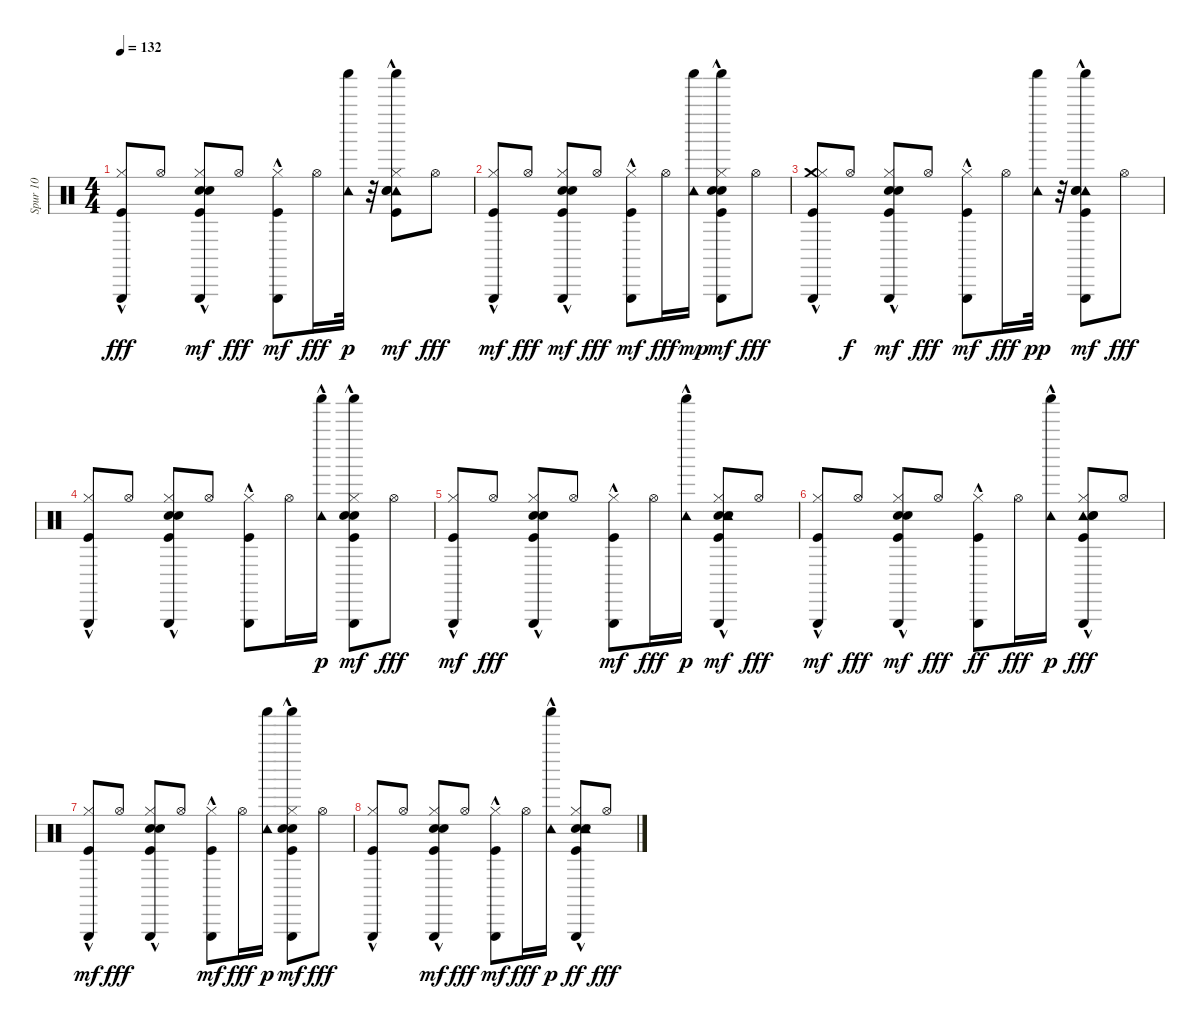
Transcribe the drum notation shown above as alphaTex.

\track ("Spur 10" "Spur 10") {instrument percussion}
\staff {score}
\articulation defaults
\ts (4 4)
\tempo 132
\clef neutral
\ks c
("Triangle (hit)"{hac} "Kick (hit)"{hac} "Hi-Hat (closed)").8{dy fff} "Hi-Hat (open)".8 ("Kick (hit)"{hac} "Hand Clap (hit)"{hac} "Snare (hit) 2"{hac} "Hi-Hat (closed)" "Triangle (hit)"{hac}).8{dy mf} "Hi-Hat (open)".8{dy fff} ("Hi-Hat (closed)" "Kick (hit)"{hac} "Triangle (hit)"{hac}).8{dy mf} "Hi-Hat (open)".16{dy fff} ("Tambourine (hit)" "Shaker (hit)").32{dy p} r.32 ("Shaker (hit)" "Tambourine (hit)"{hac} "Hi-Hat (closed)" "Kick (hit)"{hac} "Hand Clap (hit)"{hac} "Snare (hit) 2"{hac}).8{dy mf} "Hi-Hat (open)".8{dy fff} |
("Hi-Hat (closed)" "Kick (hit)"{hac} "Triangle (hit)"{hac}).8{dy mf} "Hi-Hat (open)".8{dy fff} ("Hi-Hat (closed)" "Kick (hit)"{hac} "Snare (hit) 2"{hac} "Hand Clap (hit)"{hac} "Triangle (hit)"{hac}).8{dy mf} "Hi-Hat (open)".8{dy fff} ("Kick (hit)"{hac} "Hi-Hat (closed)" "Triangle (hit)"{hac}).8{dy mf} "Hi-Hat (open)".16{dy fff} ("Shaker (hit)" "Tambourine (hit)").16{dy mp} ("Shaker (hit)"{hac} "Triangle (hit)"{hac} "Hi-Hat (closed)" "Kick (hit)" "Hand Clap (hit)"{hac} "Snare (hit) 2"{hac}).8{dy mf} "Hi-Hat (open)".8{dy fff} |
("Crash medium (hit)" "Triangle (hit)"{hac} "Hi-Hat (closed)" "Kick (hit)").8 "Hi-Hat (open)".8{dy f} ("Snare (hit) 2"{hac} "Hand Clap (hit)"{hac} "Kick (hit)"{hac} "Hi-Hat (closed)" "Triangle (hit)").8{dy mf} "Hi-Hat (open)".8{dy fff} ("Kick (hit)"{hac} "Hi-Hat (closed)"{hac} "Triangle (hit)"{hac}).8{dy mf} "Hi-Hat (open)".16{dy fff} ("Tambourine (hit)" "Shaker (hit)").32{dy pp} r.32 ("Shaker (hit)" "Tambourine (hit)"{hac} "Triangle (hit)" "Kick (hit)"{hac} "Hand Clap (hit)"{hac} "Snare (hit) 2"{hac}).8{dy mf} "Hi-Hat (open)".8{dy fff} |
("Triangle (hit)"{hac} "Hi-Hat (closed)" "Kick (hit)"{hac}).8 "Hi-Hat (open)".8 ("Triangle (hit)" "Hi-Hat (closed)" "Hand Clap (hit)"{hac} "Snare (hit) 2"{hac} "Kick (hit)"{hac}).8 "Hi-Hat (open)".8 ("Triangle (hit)"{hac} "Hi-Hat (closed)" "Kick (hit)"{hac}).8 "Hi-Hat (open)".16 ("Tambourine (hit)"{hac} "Shaker (hit)").16{dy p} ("Shaker (hit)" "Triangle (hit)"{hac} "Hi-Hat (closed)" "Kick (hit)"{hac} "Hand Clap (hit)"{hac} "Snare (hit) 2"{hac}).8{dy mf} "Hi-Hat (open)".8{dy fff} |
("Kick (hit)"{hac} "Hi-Hat (closed)" "Triangle (hit)"{hac}).8{dy mf} "Hi-Hat (open)".8{dy fff} ("Triangle (hit)"{hac} "Kick (hit)"{hac} "Hand Clap (hit)"{hac} "Snare (hit) 2"{hac} "Hi-Hat (closed)").8 "Hi-Hat (open)".8 ("Kick (hit)"{hac} "Hi-Hat (closed)" "Triangle (hit)"{hac}).8{dy mf} "Hi-Hat (open)".16{dy fff} ("Tambourine (hit)" "Shaker (hit)"{hac}).16{dy p} ("Kick (hit)"{hac} "Snare (hit) 2"{hac} "Hand Clap (hit)"{hac} "Hi-Hat (closed)" "Triangle (hit)"{hac} "Tambourine (hit)"{hac}).8{dy mf} "Hi-Hat (open)".8{dy fff} |
("Kick (hit)"{hac} "Hi-Hat (closed)" "Triangle (hit)"{hac}).8{dy mf} "Hi-Hat (open)".8{dy fff} ("Triangle (hit)"{hac} "Hi-Hat (closed)" "Kick (hit)"{hac} "Hand Clap (hit)"{hac} "Snare (hit) 2"{hac}).8{dy mf} "Hi-Hat (open)".8{dy fff} ("Triangle (hit)"{hac} "Kick (hit)"{hac} "Hi-Hat (closed)").8{dy ff} "Hi-Hat (open)".16{dy fff} ("Tambourine (hit)" "Shaker (hit)"{hac}).16{dy p} ("Tambourine (hit)"{hac} "Triangle (hit)"{hac} "Kick (hit)"{hac} "Snare (hit) 2"{hac} "Hand Clap (hit)"{hac} "Hi-Hat (closed)").8{dy fff} "Hi-Hat (open)".8 |
("Kick (hit)"{hac} "Hi-Hat (closed)" "Triangle (hit)"{hac}).8{dy mf} "Hi-Hat (open)".8{dy fff} ("Triangle (hit)"{hac} "Hi-Hat (closed)" "Hand Clap (hit)"{hac} "Snare (hit) 2"{hac} "Kick (hit)"{hac}).8 "Hi-Hat (open)".8 ("Hi-Hat (closed)" "Kick (hit)"{hac} "Triangle (hit)"{hac}).8{dy mf} "Hi-Hat (open)".16{dy fff} ("Shaker (hit)" "Tambourine (hit)").16{dy p} ("Shaker (hit)" "Triangle (hit)"{hac} "Hi-Hat (closed)" "Kick (hit)"{hac} "Hand Clap (hit)"{hac} "Snare (hit) 2"{hac}).8{dy mf} "Hi-Hat (open)".8{dy fff} |
("Triangle (hit)"{hac} "Hi-Hat (closed)" "Kick (hit)"{hac}).8 "Hi-Hat (open)".8 ("Hi-Hat (closed)" "Kick (hit)"{hac} "Snare (hit) 2"{hac} "Hand Clap (hit)"{hac} "Triangle (hit)"{hac}).8{dy mf} "Hi-Hat (open)".8{dy fff} ("Kick (hit)"{hac} "Hi-Hat (closed)" "Triangle (hit)"{hac}).8{dy mf} "Hi-Hat (open)".16{dy fff} ("Tambourine (hit)" "Shaker (hit)"{hac}).16{dy p} ("Triangle (hit)"{hac} "Hi-Hat (closed)" "Hand Clap (hit)"{hac} "Snare (hit) 2"{hac} "Kick (hit)"{hac} "Tambourine (hit)").8{dy ff} "Hi-Hat (open)".8{dy fff}
